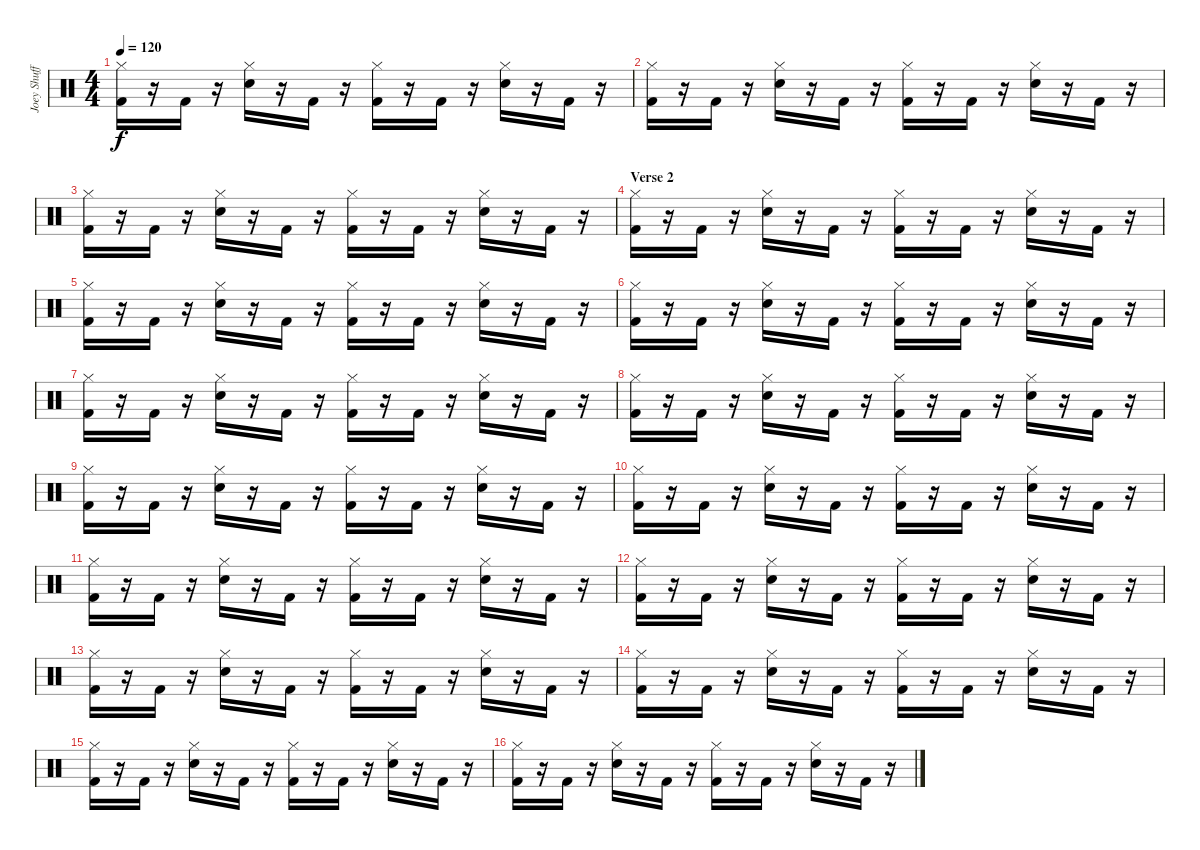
\track ("Joey Shuffield" "Joey Shuff") {instrument percussion}
\staff {score}
\articulation defaults
\ts (4 4)
\tempo 120
\clef neutral
\ks c
("Kick (hit) 2" "Hi-Hat (closed)").16{dy f} r.16 "Kick (hit) 2".16 r.16 ("Snare (hit) 2" "Hi-Hat (closed)").16 r.16 "Kick (hit) 2".16 r.16 ("Kick (hit) 2" "Hi-Hat (closed)").16 r.16 "Kick (hit) 2".16 r.16 ("Snare (hit) 2" "Hi-Hat (closed)").16 r.16 "Kick (hit) 2".16 r.16 |
("Kick (hit) 2" "Hi-Hat (closed)").16 r.16 "Kick (hit) 2".16 r.16 ("Snare (hit) 2" "Hi-Hat (closed)").16 r.16 "Kick (hit) 2".16 r.16 ("Kick (hit) 2" "Hi-Hat (closed)").16 r.16 "Kick (hit) 2".16 r.16 ("Snare (hit) 2" "Hi-Hat (closed)").16 r.16 "Kick (hit) 2".16 r.16 |
("Kick (hit) 2" "Hi-Hat (closed)").16 r.16 "Kick (hit) 2".16 r.16 ("Snare (hit) 2" "Hi-Hat (closed)").16 r.16 "Kick (hit) 2".16 r.16 ("Kick (hit) 2" "Hi-Hat (closed)").16 r.16 "Kick (hit) 2".16 r.16 ("Snare (hit) 2" "Hi-Hat (closed)").16 r.16 "Kick (hit) 2".16 r.16 |
\section ("" "Verse 2")
("Kick (hit) 2" "Hi-Hat (closed)").16 r.16 "Kick (hit) 2".16 r.16 ("Snare (hit) 2" "Hi-Hat (closed)").16 r.16 "Kick (hit) 2".16 r.16 ("Kick (hit) 2" "Hi-Hat (closed)").16 r.16 "Kick (hit) 2".16 r.16 ("Snare (hit) 2" "Hi-Hat (closed)").16 r.16 "Kick (hit) 2".16 r.16 |
("Kick (hit) 2" "Hi-Hat (closed)").16 r.16 "Kick (hit) 2".16 r.16 ("Snare (hit) 2" "Hi-Hat (closed)").16 r.16 "Kick (hit) 2".16 r.16 ("Kick (hit) 2" "Hi-Hat (closed)").16 r.16 "Kick (hit) 2".16 r.16 ("Snare (hit) 2" "Hi-Hat (closed)").16 r.16 "Kick (hit) 2".16 r.16 |
("Kick (hit) 2" "Hi-Hat (closed)").16 r.16 "Kick (hit) 2".16 r.16 ("Snare (hit) 2" "Hi-Hat (closed)").16 r.16 "Kick (hit) 2".16 r.16 ("Kick (hit) 2" "Hi-Hat (closed)").16 r.16 "Kick (hit) 2".16 r.16 ("Snare (hit) 2" "Hi-Hat (closed)").16 r.16 "Kick (hit) 2".16 r.16 |
("Kick (hit) 2" "Hi-Hat (closed)").16 r.16 "Kick (hit) 2".16 r.16 ("Snare (hit) 2" "Hi-Hat (closed)").16 r.16 "Kick (hit) 2".16 r.16 ("Kick (hit) 2" "Hi-Hat (closed)").16 r.16 "Kick (hit) 2".16 r.16 ("Snare (hit) 2" "Hi-Hat (closed)").16 r.16 "Kick (hit) 2".16 r.16 |
("Kick (hit) 2" "Hi-Hat (closed)").16 r.16 "Kick (hit) 2".16 r.16 ("Snare (hit) 2" "Hi-Hat (closed)").16 r.16 "Kick (hit) 2".16 r.16 ("Kick (hit) 2" "Hi-Hat (closed)").16 r.16 "Kick (hit) 2".16 r.16 ("Snare (hit) 2" "Hi-Hat (closed)").16 r.16 "Kick (hit) 2".16 r.16 |
("Kick (hit) 2" "Hi-Hat (closed)").16 r.16 "Kick (hit) 2".16 r.16 ("Snare (hit) 2" "Hi-Hat (closed)").16 r.16 "Kick (hit) 2".16 r.16 ("Kick (hit) 2" "Hi-Hat (closed)").16 r.16 "Kick (hit) 2".16 r.16 ("Snare (hit) 2" "Hi-Hat (closed)").16 r.16 "Kick (hit) 2".16 r.16 |
("Kick (hit) 2" "Hi-Hat (closed)").16 r.16 "Kick (hit) 2".16 r.16 ("Snare (hit) 2" "Hi-Hat (closed)").16 r.16 "Kick (hit) 2".16 r.16 ("Kick (hit) 2" "Hi-Hat (closed)").16 r.16 "Kick (hit) 2".16 r.16 ("Snare (hit) 2" "Hi-Hat (closed)").16 r.16 "Kick (hit) 2".16 r.16 |
("Kick (hit) 2" "Hi-Hat (closed)").16 r.16 "Kick (hit) 2".16 r.16 ("Snare (hit) 2" "Hi-Hat (closed)").16 r.16 "Kick (hit) 2".16 r.16 ("Kick (hit) 2" "Hi-Hat (closed)").16 r.16 "Kick (hit) 2".16 r.16 ("Snare (hit) 2" "Hi-Hat (closed)").16 r.16 "Kick (hit) 2".16 r.16 |
("Kick (hit) 2" "Hi-Hat (closed)").16 r.16 "Kick (hit) 2".16 r.16 ("Snare (hit) 2" "Hi-Hat (closed)").16 r.16 "Kick (hit) 2".16 r.16 ("Kick (hit) 2" "Hi-Hat (closed)").16 r.16 "Kick (hit) 2".16 r.16 ("Snare (hit) 2" "Hi-Hat (closed)").16 r.16 "Kick (hit) 2".16 r.16 |
("Kick (hit) 2" "Hi-Hat (closed)").16 r.16 "Kick (hit) 2".16 r.16 ("Snare (hit) 2" "Hi-Hat (closed)").16 r.16 "Kick (hit) 2".16 r.16 ("Kick (hit) 2" "Hi-Hat (closed)").16 r.16 "Kick (hit) 2".16 r.16 ("Snare (hit) 2" "Hi-Hat (closed)").16 r.16 "Kick (hit) 2".16 r.16 |
("Kick (hit) 2" "Hi-Hat (closed)").16 r.16 "Kick (hit) 2".16 r.16 ("Snare (hit) 2" "Hi-Hat (closed)").16 r.16 "Kick (hit) 2".16 r.16 ("Kick (hit) 2" "Hi-Hat (closed)").16 r.16 "Kick (hit) 2".16 r.16 ("Snare (hit) 2" "Hi-Hat (closed)").16 r.16 "Kick (hit) 2".16 r.16 |
("Kick (hit) 2" "Hi-Hat (closed)").16 r.16 "Kick (hit) 2".16 r.16 ("Snare (hit) 2" "Hi-Hat (closed)").16 r.16 "Kick (hit) 2".16 r.16 ("Kick (hit) 2" "Hi-Hat (closed)").16 r.16 "Kick (hit) 2".16 r.16 ("Snare (hit) 2" "Hi-Hat (closed)").16 r.16 "Kick (hit) 2".16 r.16 |
("Kick (hit) 2" "Hi-Hat (closed)").16 r.16 "Kick (hit) 2".16 r.16 ("Snare (hit) 2" "Hi-Hat (closed)").16 r.16 "Kick (hit) 2".16 r.16 ("Kick (hit) 2" "Hi-Hat (closed)").16 r.16 "Kick (hit) 2".16 r.16 ("Snare (hit) 2" "Hi-Hat (closed)").16 r.16 "Kick (hit) 2".16 r.16
